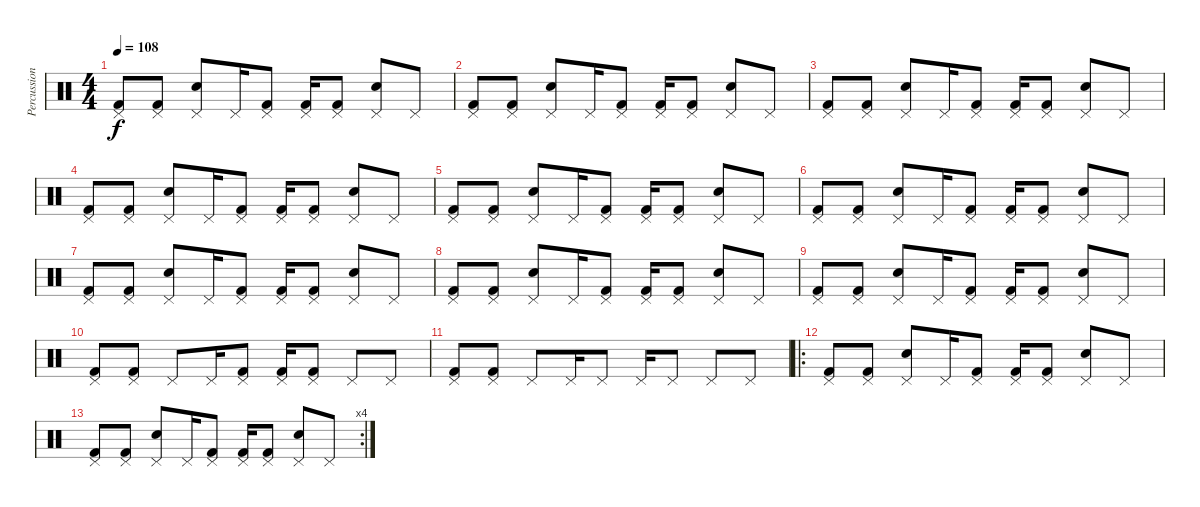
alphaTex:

\track ("Percussions" "Percussion") {instrument percussion}
\staff {score}
\articulation defaults
\ts (4 4)
\tempo 108
\clef neutral
\ks c
("Pedal Hi-Hat (hit)" "Kick (hit) 2").8{dy f} ("Pedal Hi-Hat (hit)" "Kick (hit) 2").8 ("Pedal Hi-Hat (hit)" "Snare (hit) 2").8 "Pedal Hi-Hat (hit)".16 ("Pedal Hi-Hat (hit)" "Kick (hit) 2").8 ("Pedal Hi-Hat (hit)" "Kick (hit) 2").16 ("Pedal Hi-Hat (hit)" "Kick (hit) 2").8 ("Pedal Hi-Hat (hit)" "Snare (hit) 2").8 "Pedal Hi-Hat (hit)".8 |
("Pedal Hi-Hat (hit)" "Kick (hit) 2").8 ("Pedal Hi-Hat (hit)" "Kick (hit) 2").8 ("Pedal Hi-Hat (hit)" "Snare (hit) 2").8 "Pedal Hi-Hat (hit)".16 ("Pedal Hi-Hat (hit)" "Kick (hit) 2").8 ("Pedal Hi-Hat (hit)" "Kick (hit) 2").16 ("Pedal Hi-Hat (hit)" "Kick (hit) 2").8 ("Pedal Hi-Hat (hit)" "Snare (hit) 2").8 "Pedal Hi-Hat (hit)".8 |
("Pedal Hi-Hat (hit)" "Kick (hit) 2").8 ("Pedal Hi-Hat (hit)" "Kick (hit) 2").8 ("Pedal Hi-Hat (hit)" "Snare (hit) 2").8 "Pedal Hi-Hat (hit)".16 ("Pedal Hi-Hat (hit)" "Kick (hit) 2").8 ("Pedal Hi-Hat (hit)" "Kick (hit) 2").16 ("Pedal Hi-Hat (hit)" "Kick (hit) 2").8 ("Pedal Hi-Hat (hit)" "Snare (hit) 2").8 "Pedal Hi-Hat (hit)".8 |
("Pedal Hi-Hat (hit)" "Kick (hit) 2").8 ("Pedal Hi-Hat (hit)" "Kick (hit) 2").8 ("Pedal Hi-Hat (hit)" "Snare (hit) 2").8 "Pedal Hi-Hat (hit)".16 ("Pedal Hi-Hat (hit)" "Kick (hit) 2").8 ("Pedal Hi-Hat (hit)" "Kick (hit) 2").16 ("Pedal Hi-Hat (hit)" "Kick (hit) 2").8 ("Pedal Hi-Hat (hit)" "Snare (hit) 2").8 "Pedal Hi-Hat (hit)".8 |
("Pedal Hi-Hat (hit)" "Kick (hit) 2").8 ("Pedal Hi-Hat (hit)" "Kick (hit) 2").8 ("Pedal Hi-Hat (hit)" "Snare (hit) 2").8 "Pedal Hi-Hat (hit)".16 ("Pedal Hi-Hat (hit)" "Kick (hit) 2").8 ("Pedal Hi-Hat (hit)" "Kick (hit) 2").16 ("Pedal Hi-Hat (hit)" "Kick (hit) 2").8 ("Pedal Hi-Hat (hit)" "Snare (hit) 2").8 "Pedal Hi-Hat (hit)".8 |
("Pedal Hi-Hat (hit)" "Kick (hit) 2").8 ("Pedal Hi-Hat (hit)" "Kick (hit) 2").8 ("Pedal Hi-Hat (hit)" "Snare (hit) 2").8 "Pedal Hi-Hat (hit)".16 ("Pedal Hi-Hat (hit)" "Kick (hit) 2").8 ("Pedal Hi-Hat (hit)" "Kick (hit) 2").16 ("Pedal Hi-Hat (hit)" "Kick (hit) 2").8 ("Pedal Hi-Hat (hit)" "Snare (hit) 2").8 "Pedal Hi-Hat (hit)".8 |
("Pedal Hi-Hat (hit)" "Kick (hit) 2").8 ("Pedal Hi-Hat (hit)" "Kick (hit) 2").8 ("Pedal Hi-Hat (hit)" "Snare (hit) 2").8 "Pedal Hi-Hat (hit)".16 ("Pedal Hi-Hat (hit)" "Kick (hit) 2").8 ("Pedal Hi-Hat (hit)" "Kick (hit) 2").16 ("Pedal Hi-Hat (hit)" "Kick (hit) 2").8 ("Pedal Hi-Hat (hit)" "Snare (hit) 2").8 "Pedal Hi-Hat (hit)".8 |
("Pedal Hi-Hat (hit)" "Kick (hit) 2").8 ("Pedal Hi-Hat (hit)" "Kick (hit) 2").8 ("Pedal Hi-Hat (hit)" "Snare (hit) 2").8 "Pedal Hi-Hat (hit)".16 ("Pedal Hi-Hat (hit)" "Kick (hit) 2").8 ("Pedal Hi-Hat (hit)" "Kick (hit) 2").16 ("Pedal Hi-Hat (hit)" "Kick (hit) 2").8 ("Pedal Hi-Hat (hit)" "Snare (hit) 2").8 "Pedal Hi-Hat (hit)".8 |
("Pedal Hi-Hat (hit)" "Kick (hit) 2").8 ("Pedal Hi-Hat (hit)" "Kick (hit) 2").8 ("Pedal Hi-Hat (hit)" "Snare (hit) 2").8 "Pedal Hi-Hat (hit)".16 ("Pedal Hi-Hat (hit)" "Kick (hit) 2").8 ("Pedal Hi-Hat (hit)" "Kick (hit) 2").16 ("Pedal Hi-Hat (hit)" "Kick (hit) 2").8 ("Pedal Hi-Hat (hit)" "Snare (hit) 2").8 "Pedal Hi-Hat (hit)".8 |
("Pedal Hi-Hat (hit)" "Kick (hit) 2").8 ("Pedal Hi-Hat (hit)" "Kick (hit) 2").8 "Pedal Hi-Hat (hit)".8 "Pedal Hi-Hat (hit)".16 ("Pedal Hi-Hat (hit)" "Kick (hit) 2").8 ("Pedal Hi-Hat (hit)" "Kick (hit) 2").16 ("Pedal Hi-Hat (hit)" "Kick (hit) 2").8 "Pedal Hi-Hat (hit)".8 "Pedal Hi-Hat (hit)".8 |
("Pedal Hi-Hat (hit)" "Kick (hit) 2").8 ("Pedal Hi-Hat (hit)" "Kick (hit) 2").8 "Pedal Hi-Hat (hit)".8 "Pedal Hi-Hat (hit)".16 "Pedal Hi-Hat (hit)".8 "Pedal Hi-Hat (hit)".16 "Pedal Hi-Hat (hit)".8 "Pedal Hi-Hat (hit)".8 "Pedal Hi-Hat (hit)".8 |
\ro
("Pedal Hi-Hat (hit)" "Kick (hit) 2").8 ("Pedal Hi-Hat (hit)" "Kick (hit) 2").8 ("Pedal Hi-Hat (hit)" "Snare (hit) 2").8 "Pedal Hi-Hat (hit)".16 ("Pedal Hi-Hat (hit)" "Kick (hit) 2").8 ("Pedal Hi-Hat (hit)" "Kick (hit) 2").16 ("Pedal Hi-Hat (hit)" "Kick (hit) 2").8 ("Pedal Hi-Hat (hit)" "Snare (hit) 2").8 "Pedal Hi-Hat (hit)".8 |
\rc 4
("Pedal Hi-Hat (hit)" "Kick (hit) 2").8 ("Pedal Hi-Hat (hit)" "Kick (hit) 2").8 ("Pedal Hi-Hat (hit)" "Snare (hit) 2").8 "Pedal Hi-Hat (hit)".16 ("Pedal Hi-Hat (hit)" "Kick (hit) 2").8 ("Pedal Hi-Hat (hit)" "Kick (hit) 2").16 ("Pedal Hi-Hat (hit)" "Kick (hit) 2").8 ("Pedal Hi-Hat (hit)" "Snare (hit) 2").8 "Pedal Hi-Hat (hit)".8
